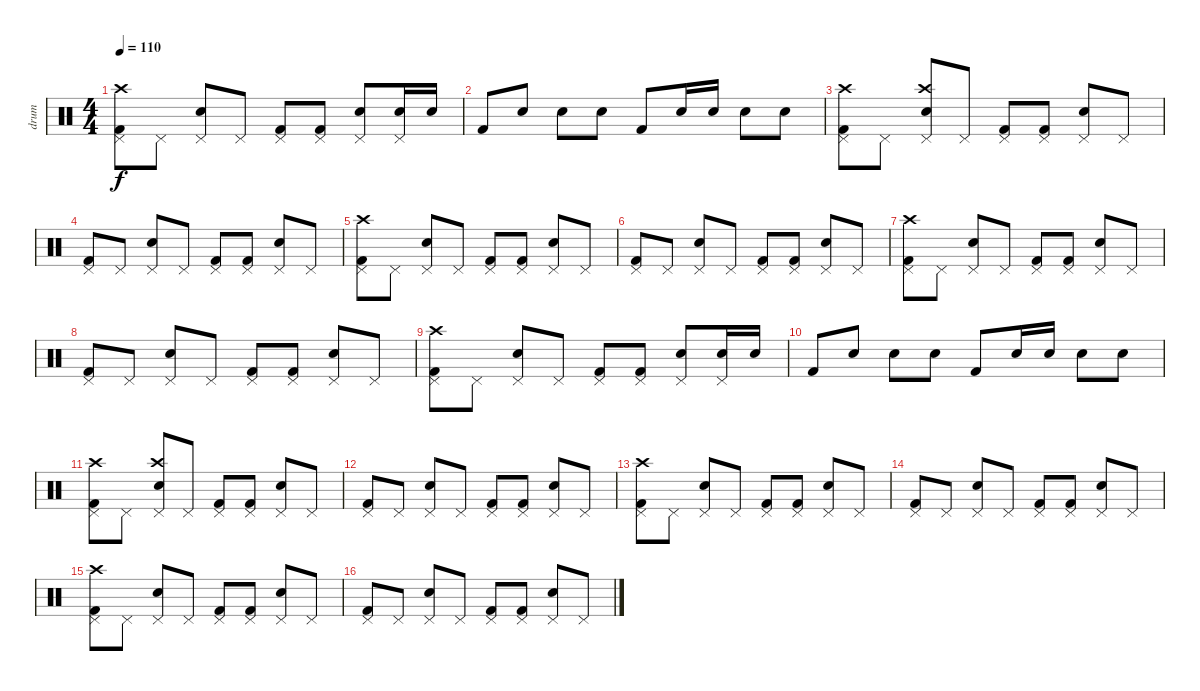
\track ("drum" "drum") {instrument percussion}
\staff {score}
\articulation defaults
\ts (4 4)
\tempo 110
\clef neutral
\ks c
("Pedal Hi-Hat (hit)" "Kick (hit) 2" "Crash high (hit)").8{dy f} "Pedal Hi-Hat (hit)".8 ("Pedal Hi-Hat (hit)" "Electric Snare (hit)").8 "Pedal Hi-Hat (hit)".8 ("Pedal Hi-Hat (hit)" "Kick (hit) 2").8 ("Pedal Hi-Hat (hit)" "Kick (hit) 2").8 ("Pedal Hi-Hat (hit)" "Electric Snare (hit)").8 ("Pedal Hi-Hat (hit)" "Electric Snare (hit)").16 "Electric Snare (hit)".16 |
"Kick (hit) 2".8 "Electric Snare (hit)".8 "Electric Snare (hit)".8 "Electric Snare (hit)".8 "Kick (hit) 2".8 "Electric Snare (hit)".16 "Electric Snare (hit)".16 "Electric Snare (hit)".8 "Electric Snare (hit)".8 |
("Pedal Hi-Hat (hit)" "Kick (hit) 2" "Crash high (hit)").8 "Pedal Hi-Hat (hit)".8 ("Pedal Hi-Hat (hit)" "Electric Snare (hit)" "Crash high (hit)").8 "Pedal Hi-Hat (hit)".8 ("Pedal Hi-Hat (hit)" "Kick (hit) 2").8 ("Pedal Hi-Hat (hit)" "Kick (hit) 2").8 ("Pedal Hi-Hat (hit)" "Electric Snare (hit)").8 "Pedal Hi-Hat (hit)".8 |
("Pedal Hi-Hat (hit)" "Kick (hit) 2").8 "Pedal Hi-Hat (hit)".8 ("Pedal Hi-Hat (hit)" "Electric Snare (hit)").8 "Pedal Hi-Hat (hit)".8 ("Pedal Hi-Hat (hit)" "Kick (hit) 2").8 ("Pedal Hi-Hat (hit)" "Kick (hit) 2").8 ("Pedal Hi-Hat (hit)" "Electric Snare (hit)").8 "Pedal Hi-Hat (hit)".8 |
("Pedal Hi-Hat (hit)" "Kick (hit) 2" "Crash high (hit)").8 "Pedal Hi-Hat (hit)".8 ("Pedal Hi-Hat (hit)" "Electric Snare (hit)").8 "Pedal Hi-Hat (hit)".8 ("Pedal Hi-Hat (hit)" "Kick (hit) 2").8 ("Pedal Hi-Hat (hit)" "Kick (hit) 2").8 ("Pedal Hi-Hat (hit)" "Electric Snare (hit)").8 "Pedal Hi-Hat (hit)".8 |
("Pedal Hi-Hat (hit)" "Kick (hit) 2").8 "Pedal Hi-Hat (hit)".8 ("Pedal Hi-Hat (hit)" "Electric Snare (hit)").8 "Pedal Hi-Hat (hit)".8 ("Pedal Hi-Hat (hit)" "Kick (hit) 2").8 ("Pedal Hi-Hat (hit)" "Kick (hit) 2").8 ("Pedal Hi-Hat (hit)" "Electric Snare (hit)").8 "Pedal Hi-Hat (hit)".8 |
("Pedal Hi-Hat (hit)" "Kick (hit) 2" "Crash high (hit)").8 "Pedal Hi-Hat (hit)".8 ("Pedal Hi-Hat (hit)" "Electric Snare (hit)").8 "Pedal Hi-Hat (hit)".8 ("Pedal Hi-Hat (hit)" "Kick (hit) 2").8 ("Pedal Hi-Hat (hit)" "Kick (hit) 2").8 ("Pedal Hi-Hat (hit)" "Electric Snare (hit)").8 "Pedal Hi-Hat (hit)".8 |
("Pedal Hi-Hat (hit)" "Kick (hit) 2").8 "Pedal Hi-Hat (hit)".8 ("Pedal Hi-Hat (hit)" "Electric Snare (hit)").8 "Pedal Hi-Hat (hit)".8 ("Pedal Hi-Hat (hit)" "Kick (hit) 2").8 ("Pedal Hi-Hat (hit)" "Kick (hit) 2").8 ("Pedal Hi-Hat (hit)" "Electric Snare (hit)").8 "Pedal Hi-Hat (hit)".8 |
("Pedal Hi-Hat (hit)" "Kick (hit) 2" "Crash high (hit)").8 "Pedal Hi-Hat (hit)".8 ("Pedal Hi-Hat (hit)" "Electric Snare (hit)").8 "Pedal Hi-Hat (hit)".8 ("Pedal Hi-Hat (hit)" "Kick (hit) 2").8 ("Pedal Hi-Hat (hit)" "Kick (hit) 2").8 ("Pedal Hi-Hat (hit)" "Electric Snare (hit)").8 ("Pedal Hi-Hat (hit)" "Electric Snare (hit)").16 "Electric Snare (hit)".16 |
"Kick (hit) 2".8 "Electric Snare (hit)".8 "Electric Snare (hit)".8 "Electric Snare (hit)".8 "Kick (hit) 2".8 "Electric Snare (hit)".16 "Electric Snare (hit)".16 "Electric Snare (hit)".8 "Electric Snare (hit)".8 |
("Pedal Hi-Hat (hit)" "Kick (hit) 2" "Crash high (hit)").8 "Pedal Hi-Hat (hit)".8 ("Pedal Hi-Hat (hit)" "Electric Snare (hit)" "Crash high (hit)").8 "Pedal Hi-Hat (hit)".8 ("Pedal Hi-Hat (hit)" "Kick (hit) 2").8 ("Pedal Hi-Hat (hit)" "Kick (hit) 2").8 ("Pedal Hi-Hat (hit)" "Electric Snare (hit)").8 "Pedal Hi-Hat (hit)".8 |
("Pedal Hi-Hat (hit)" "Kick (hit) 2").8 "Pedal Hi-Hat (hit)".8 ("Pedal Hi-Hat (hit)" "Electric Snare (hit)").8 "Pedal Hi-Hat (hit)".8 ("Pedal Hi-Hat (hit)" "Kick (hit) 2").8 ("Pedal Hi-Hat (hit)" "Kick (hit) 2").8 ("Pedal Hi-Hat (hit)" "Electric Snare (hit)").8 "Pedal Hi-Hat (hit)".8 |
("Pedal Hi-Hat (hit)" "Kick (hit) 2" "Crash high (hit)").8 "Pedal Hi-Hat (hit)".8 ("Pedal Hi-Hat (hit)" "Electric Snare (hit)").8 "Pedal Hi-Hat (hit)".8 ("Pedal Hi-Hat (hit)" "Kick (hit) 2").8 ("Pedal Hi-Hat (hit)" "Kick (hit) 2").8 ("Pedal Hi-Hat (hit)" "Electric Snare (hit)").8 "Pedal Hi-Hat (hit)".8 |
("Pedal Hi-Hat (hit)" "Kick (hit) 2").8 "Pedal Hi-Hat (hit)".8 ("Pedal Hi-Hat (hit)" "Electric Snare (hit)").8 "Pedal Hi-Hat (hit)".8 ("Pedal Hi-Hat (hit)" "Kick (hit) 2").8 ("Pedal Hi-Hat (hit)" "Kick (hit) 2").8 ("Pedal Hi-Hat (hit)" "Electric Snare (hit)").8 "Pedal Hi-Hat (hit)".8 |
("Pedal Hi-Hat (hit)" "Kick (hit) 2" "Crash high (hit)").8 "Pedal Hi-Hat (hit)".8 ("Pedal Hi-Hat (hit)" "Electric Snare (hit)").8 "Pedal Hi-Hat (hit)".8 ("Pedal Hi-Hat (hit)" "Kick (hit) 2").8 ("Pedal Hi-Hat (hit)" "Kick (hit) 2").8 ("Pedal Hi-Hat (hit)" "Electric Snare (hit)").8 "Pedal Hi-Hat (hit)".8 |
("Pedal Hi-Hat (hit)" "Kick (hit) 2").8 "Pedal Hi-Hat (hit)".8 ("Pedal Hi-Hat (hit)" "Electric Snare (hit)").8 "Pedal Hi-Hat (hit)".8 ("Pedal Hi-Hat (hit)" "Kick (hit) 2").8 ("Pedal Hi-Hat (hit)" "Kick (hit) 2").8 ("Pedal Hi-Hat (hit)" "Electric Snare (hit)").8 "Pedal Hi-Hat (hit)".8
